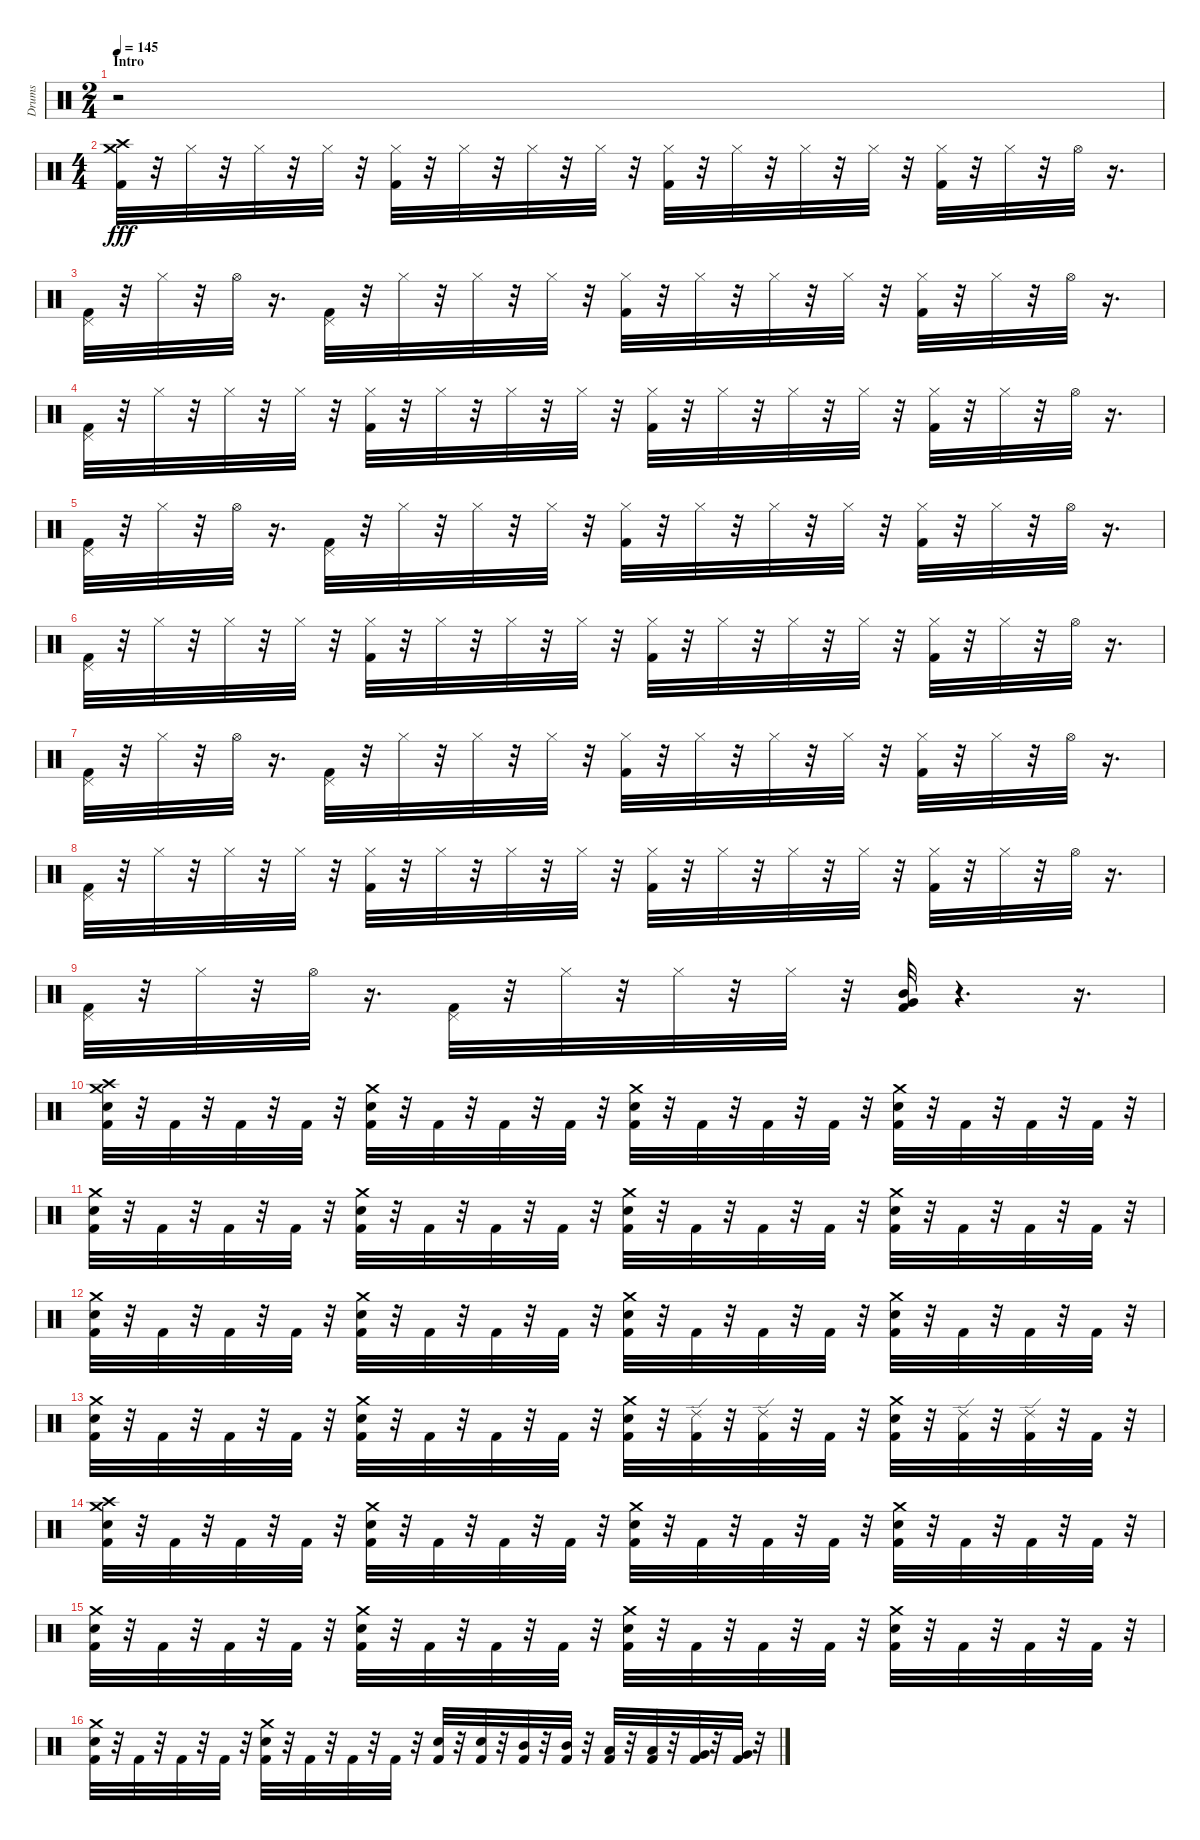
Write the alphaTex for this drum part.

\track ("Drums" "Drums") {instrument percussion}
\staff {score}
\articulation defaults
\ts (2 4)
\section ("" "Intro")
\tempo 145
\clef neutral
\ks c
r.2{dy fff} |
\ts (4 4)
("Crash medium (hit)" "Crash high (hit)" "Kick (hit) 2").32 r.32 "Hi-Hat (closed)".32 r.32 "Hi-Hat (closed)".32 r.32 "Hi-Hat (closed)".32 r.32 ("Hi-Hat (closed)" "Kick (hit) 2").32 r.32 "Hi-Hat (closed)".32 r.32 "Hi-Hat (closed)".32 r.32 "Hi-Hat (closed)".32 r.32 ("Hi-Hat (closed)" "Kick (hit) 2").32 r.32 "Hi-Hat (closed)".32 r.32 "Hi-Hat (closed)".32 r.32 "Hi-Hat (closed)".32 r.32 ("Hi-Hat (closed)" "Kick (hit) 2").32 r.32 "Hi-Hat (closed)".32 r.32 "Hi-Hat (open)".32 r.16{d} |
("Pedal Hi-Hat (hit)" "Kick (hit) 2").32 r.32 "Hi-Hat (closed)".32 r.32 "Hi-Hat (open)".32 r.16{d} ("Pedal Hi-Hat (hit)" "Kick (hit) 2").32 r.32 "Hi-Hat (closed)".32 r.32 "Hi-Hat (closed)".32 r.32 "Hi-Hat (closed)".32 r.32 ("Hi-Hat (closed)" "Kick (hit) 2").32 r.32 "Hi-Hat (closed)".32 r.32 "Hi-Hat (closed)".32 r.32 "Hi-Hat (closed)".32 r.32 ("Hi-Hat (closed)" "Kick (hit) 2").32 r.32 "Hi-Hat (closed)".32 r.32 "Hi-Hat (open)".32 r.16{d} |
("Pedal Hi-Hat (hit)" "Kick (hit) 2").32 r.32 "Hi-Hat (closed)".32 r.32 "Hi-Hat (closed)".32 r.32 "Hi-Hat (closed)".32 r.32 ("Hi-Hat (closed)" "Kick (hit) 2").32 r.32 "Hi-Hat (closed)".32 r.32 "Hi-Hat (closed)".32 r.32 "Hi-Hat (closed)".32 r.32 ("Hi-Hat (closed)" "Kick (hit) 2").32 r.32 "Hi-Hat (closed)".32 r.32 "Hi-Hat (closed)".32 r.32 "Hi-Hat (closed)".32 r.32 ("Hi-Hat (closed)" "Kick (hit) 2").32 r.32 "Hi-Hat (closed)".32 r.32 "Hi-Hat (open)".32 r.16{d} |
("Pedal Hi-Hat (hit)" "Kick (hit) 2").32 r.32 "Hi-Hat (closed)".32 r.32 "Hi-Hat (open)".32 r.16{d} ("Pedal Hi-Hat (hit)" "Kick (hit) 2").32 r.32 "Hi-Hat (closed)".32 r.32 "Hi-Hat (closed)".32 r.32 "Hi-Hat (closed)".32 r.32 ("Hi-Hat (closed)" "Kick (hit) 2").32 r.32 "Hi-Hat (closed)".32 r.32 "Hi-Hat (closed)".32 r.32 "Hi-Hat (closed)".32 r.32 ("Hi-Hat (closed)" "Kick (hit) 2").32 r.32 "Hi-Hat (closed)".32 r.32 "Hi-Hat (open)".32 r.16{d} |
("Pedal Hi-Hat (hit)" "Kick (hit) 2").32 r.32 "Hi-Hat (closed)".32 r.32 "Hi-Hat (closed)".32 r.32 "Hi-Hat (closed)".32 r.32 ("Hi-Hat (closed)" "Kick (hit) 2").32 r.32 "Hi-Hat (closed)".32 r.32 "Hi-Hat (closed)".32 r.32 "Hi-Hat (closed)".32 r.32 ("Hi-Hat (closed)" "Kick (hit) 2").32 r.32 "Hi-Hat (closed)".32 r.32 "Hi-Hat (closed)".32 r.32 "Hi-Hat (closed)".32 r.32 ("Hi-Hat (closed)" "Kick (hit) 2").32 r.32 "Hi-Hat (closed)".32 r.32 "Hi-Hat (open)".32 r.16{d} |
("Pedal Hi-Hat (hit)" "Kick (hit) 2").32 r.32 "Hi-Hat (closed)".32 r.32 "Hi-Hat (open)".32 r.16{d} ("Pedal Hi-Hat (hit)" "Kick (hit) 2").32 r.32 "Hi-Hat (closed)".32 r.32 "Hi-Hat (closed)".32 r.32 "Hi-Hat (closed)".32 r.32 ("Hi-Hat (closed)" "Kick (hit) 2").32 r.32 "Hi-Hat (closed)".32 r.32 "Hi-Hat (closed)".32 r.32 "Hi-Hat (closed)".32 r.32 ("Hi-Hat (closed)" "Kick (hit) 2").32 r.32 "Hi-Hat (closed)".32 r.32 "Hi-Hat (open)".32 r.16{d} |
("Pedal Hi-Hat (hit)" "Kick (hit) 2").32 r.32 "Hi-Hat (closed)".32 r.32 "Hi-Hat (closed)".32 r.32 "Hi-Hat (closed)".32 r.32 ("Hi-Hat (closed)" "Kick (hit) 2").32 r.32 "Hi-Hat (closed)".32 r.32 "Hi-Hat (closed)".32 r.32 "Hi-Hat (closed)".32 r.32 ("Hi-Hat (closed)" "Kick (hit) 2").32 r.32 "Hi-Hat (closed)".32 r.32 "Hi-Hat (closed)".32 r.32 "Hi-Hat (closed)".32 r.32 ("Hi-Hat (closed)" "Kick (hit) 2").32 r.32 "Hi-Hat (closed)".32 r.32 "Hi-Hat (open)".32 r.16{d} |
("Pedal Hi-Hat (hit)" "Kick (hit) 2").32 r.32 "Hi-Hat (closed)".32 r.32 "Hi-Hat (open)".32 r.16{d} ("Pedal Hi-Hat (hit)" "Kick (hit) 2").32 r.32 "Hi-Hat (closed)".32 r.32 "Hi-Hat (closed)".32 r.32 "Hi-Hat (closed)".32 r.32 ("Very Low Tom (hit)" "Mid Tom (hit)" "Kick (hit) 2").32 r.4{d} r.16{d} |
("Snare (hit) 2" "Crash medium (hit)" "Crash high (hit)" "Kick (hit) 2").32 r.32 "Kick (hit) 2".32 r.32 "Kick (hit) 2".32 r.32 "Kick (hit) 2".32 r.32 ("Snare (hit) 2" "Crash medium (hit)" "Kick (hit) 2").32 r.32 "Kick (hit) 2".32 r.32 "Kick (hit) 2".32 r.32 "Kick (hit) 2".32 r.32 ("Snare (hit) 2" "Crash medium (hit)" "Kick (hit) 2").32 r.32 "Kick (hit) 2".32 r.32 "Kick (hit) 2".32 r.32 "Kick (hit) 2".32 r.32 ("Snare (hit) 2" "Crash medium (hit)" "Kick (hit) 2").32 r.32 "Kick (hit) 2".32 r.32 "Kick (hit) 2".32 r.32 "Kick (hit) 2".32 r.32 |
("Snare (hit) 2" "Crash medium (hit)" "Kick (hit) 2").32 r.32 "Kick (hit) 2".32 r.32 "Kick (hit) 2".32 r.32 "Kick (hit) 2".32 r.32 ("Snare (hit) 2" "Crash medium (hit)" "Kick (hit) 2").32 r.32 "Kick (hit) 2".32 r.32 "Kick (hit) 2".32 r.32 "Kick (hit) 2".32 r.32 ("Snare (hit) 2" "Crash medium (hit)" "Kick (hit) 2").32 r.32 "Kick (hit) 2".32 r.32 "Kick (hit) 2".32 r.32 "Kick (hit) 2".32 r.32 ("Snare (hit) 2" "Crash medium (hit)" "Kick (hit) 2").32 r.32 "Kick (hit) 2".32 r.32 "Kick (hit) 2".32 r.32 "Kick (hit) 2".32 r.32 |
("Snare (hit) 2" "Crash medium (hit)" "Kick (hit) 2").32 r.32 "Kick (hit) 2".32 r.32 "Kick (hit) 2".32 r.32 "Kick (hit) 2".32 r.32 ("Snare (hit) 2" "Crash medium (hit)" "Kick (hit) 2").32 r.32 "Kick (hit) 2".32 r.32 "Kick (hit) 2".32 r.32 "Kick (hit) 2".32 r.32 ("Snare (hit) 2" "Crash medium (hit)" "Kick (hit) 2").32 r.32 "Kick (hit) 2".32 r.32 "Kick (hit) 2".32 r.32 "Kick (hit) 2".32 r.32 ("Snare (hit) 2" "Crash medium (hit)" "Kick (hit) 2").32 r.32 "Kick (hit) 2".32 r.32 "Kick (hit) 2".32 r.32 "Kick (hit) 2".32 r.32 |
("Snare (hit) 2" "Crash medium (hit)" "Kick (hit) 2").32 r.32 "Kick (hit) 2".32 r.32 "Kick (hit) 2".32 r.32 "Kick (hit) 2".32 r.32 ("Snare (hit) 2" "Crash medium (hit)" "Kick (hit) 2").32 r.32 "Kick (hit) 2".32 r.32 "Kick (hit) 2".32 r.32 "Kick (hit) 2".32 r.32 ("Snare (hit) 2" "Crash medium (hit)" "Kick (hit) 2").32 r.32 ("Ride (edge) 2" "Kick (hit) 2").32 r.32 ("Ride (edge) 2" "Kick (hit) 2").32 r.32 "Kick (hit) 2".32 r.32 ("Snare (hit) 2" "Crash medium (hit)" "Kick (hit) 2").32 r.32 ("Ride (edge) 2" "Kick (hit) 2").32 r.32 ("Ride (edge) 2" "Kick (hit) 2").32 r.32 "Kick (hit) 2".32 r.32 |
("Snare (hit) 2" "Crash medium (hit)" "Crash high (hit)" "Kick (hit) 2").32 r.32 "Kick (hit) 2".32 r.32 "Kick (hit) 2".32 r.32 "Kick (hit) 2".32 r.32 ("Snare (hit) 2" "Crash medium (hit)" "Kick (hit) 2").32 r.32 "Kick (hit) 2".32 r.32 "Kick (hit) 2".32 r.32 "Kick (hit) 2".32 r.32 ("Snare (hit) 2" "Crash medium (hit)" "Kick (hit) 2").32 r.32 "Kick (hit) 2".32 r.32 "Kick (hit) 2".32 r.32 "Kick (hit) 2".32 r.32 ("Snare (hit) 2" "Crash medium (hit)" "Kick (hit) 2").32 r.32 "Kick (hit) 2".32 r.32 "Kick (hit) 2".32 r.32 "Kick (hit) 2".32 r.32 |
("Snare (hit) 2" "Crash medium (hit)" "Kick (hit) 2").32 r.32 "Kick (hit) 2".32 r.32 "Kick (hit) 2".32 r.32 "Kick (hit) 2".32 r.32 ("Snare (hit) 2" "Crash medium (hit)" "Kick (hit) 2").32 r.32 "Kick (hit) 2".32 r.32 "Kick (hit) 2".32 r.32 "Kick (hit) 2".32 r.32 ("Snare (hit) 2" "Crash medium (hit)" "Kick (hit) 2").32 r.32 "Kick (hit) 2".32 r.32 "Kick (hit) 2".32 r.32 "Kick (hit) 2".32 r.32 ("Snare (hit) 2" "Crash medium (hit)" "Kick (hit) 2").32 r.32 "Kick (hit) 2".32 r.32 "Kick (hit) 2".32 r.32 "Kick (hit) 2".32 r.32 |
("Snare (hit) 2" "Crash medium (hit)" "Kick (hit) 2").32 r.32 "Kick (hit) 2".32 r.32 "Kick (hit) 2".32 r.32 "Kick (hit) 2".32 r.32 ("Snare (hit) 2" "Crash medium (hit)" "Kick (hit) 2").32 r.32 "Kick (hit) 2".32 r.32 "Kick (hit) 2".32 r.32 "Kick (hit) 2".32 r.32 ("Snare (hit) 2" "Kick (hit) 2").32 r.32 ("Snare (hit) 2" "Kick (hit) 2").32 r.32 ("Mid Tom (hit)" "Kick (hit) 2").32 r.32 ("Mid Tom (hit)" "Kick (hit) 2").32 r.32 ("Low Tom (hit)" "Kick (hit) 2").32 r.32 ("Low Tom (hit)" "Kick (hit) 2").32 r.32 ("Very Low Tom (hit)" "Kick (hit) 2").32 r.32 ("Very Low Tom (hit)" "Kick (hit) 2").32 r.32
